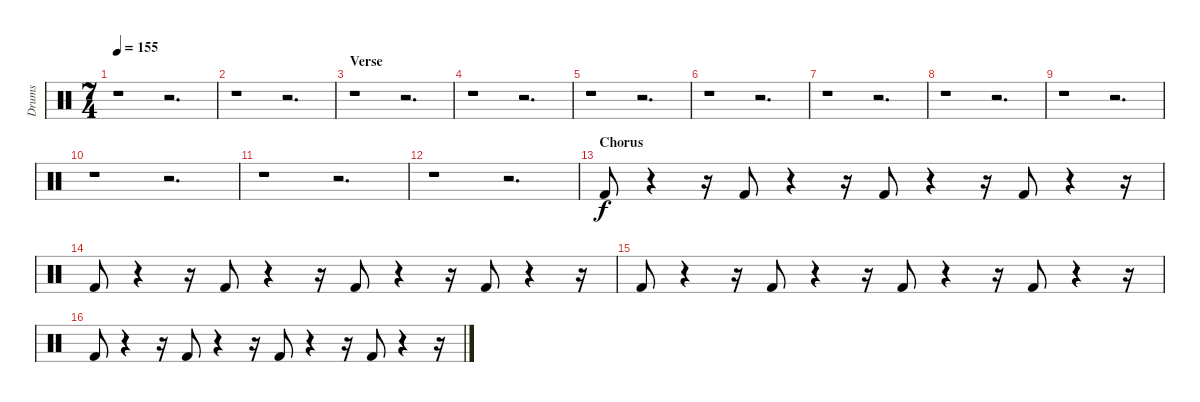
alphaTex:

\track ("Drums" "Drums") {instrument percussion}
\staff {score}
\articulation defaults
\ts (7 4)
\tempo 155
\clef neutral
\ks c
r.1{dy f} r.2{d} |
r.1 r.2{d} |
\section ("" "Verse")
r.1 r.2{d} |
r.1 r.2{d} |
r.1 r.2{d} |
r.1 r.2{d} |
r.1 r.2{d} |
r.1 r.2{d} |
r.1 r.2{d} |
r.1 r.2{d} |
r.1 r.2{d} |
r.1 r.2{d} |
\section ("" "Chorus")
"Kick (hit) 2".8 r.4 r.16 "Kick (hit) 2".8 r.4 r.16 "Kick (hit) 2".8 r.4 r.16 "Kick (hit) 2".8 r.4 r.16 |
"Kick (hit) 2".8 r.4 r.16 "Kick (hit) 2".8 r.4 r.16 "Kick (hit) 2".8 r.4 r.16 "Kick (hit) 2".8 r.4 r.16 |
"Kick (hit) 2".8 r.4 r.16 "Kick (hit) 2".8 r.4 r.16 "Kick (hit) 2".8 r.4 r.16 "Kick (hit) 2".8 r.4 r.16 |
"Kick (hit) 2".8 r.4 r.16 "Kick (hit) 2".8 r.4 r.16 "Kick (hit) 2".8 r.4 r.16 "Kick (hit) 2".8 r.4 r.16
